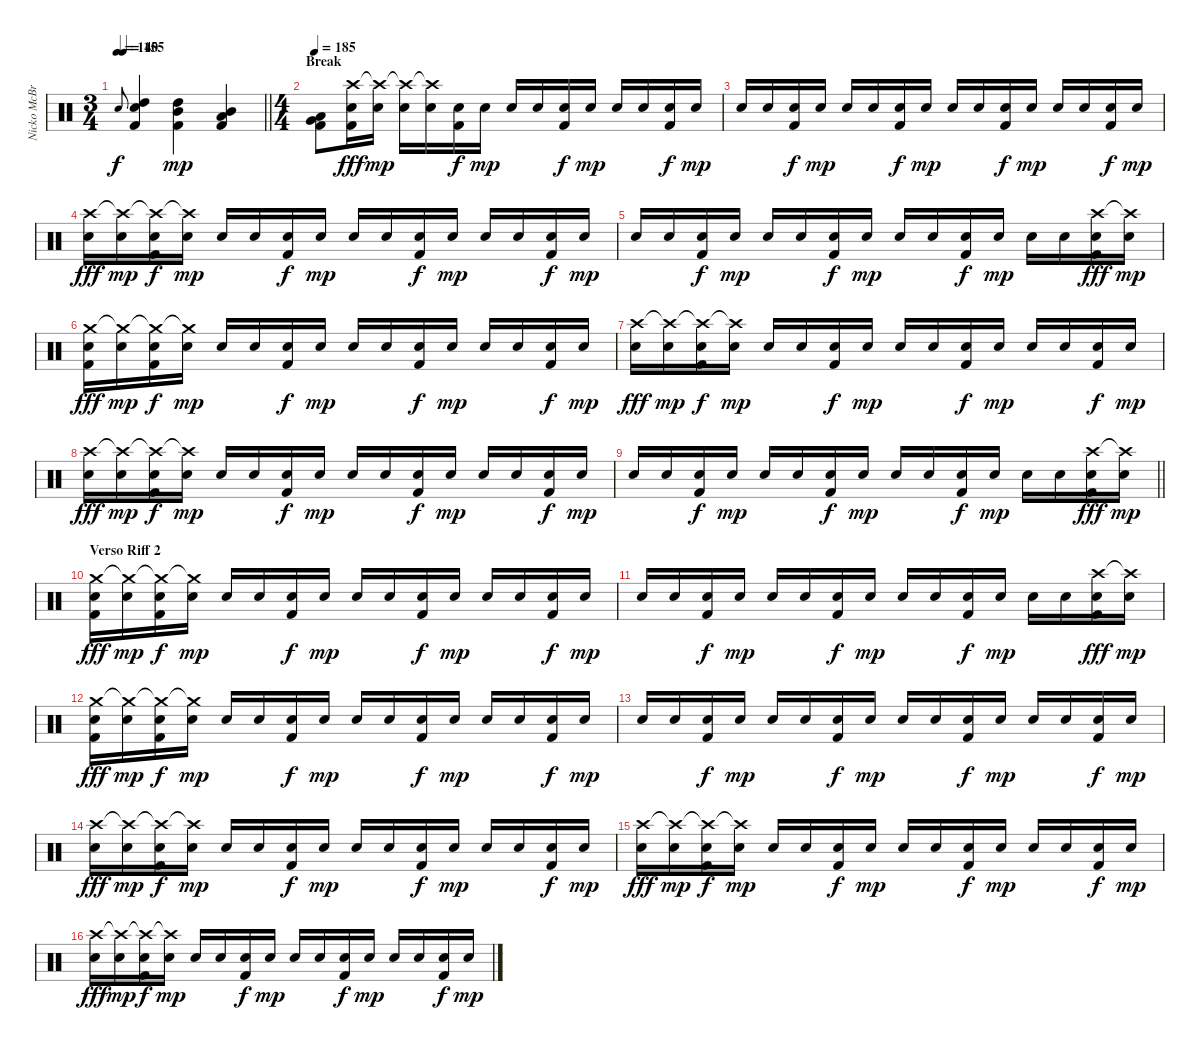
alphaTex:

\track ("Nicko McBrain" "Nicko McBr") {instrument percussion}
\staff {score}
\articulation defaults
\ts (3 4)
\tempo 140
\tempo (155 0.041666666666666664)
\clef neutral
\barLineRight lightlight
\ks c "Snare (hit) 2".8{gr onbeat dy f}
("Snare (hit) 2" "High Tom (hit)" "Kick (hit) 2").4 ("High Tom (hit)" "Mid Tom (hit)" "Kick (hit) 2").4{dy mp} ("Mid Tom (hit)" "Low Tom (hit)" "Kick (hit) 2").4 |
\ts (4 4)
\section ("" "Break")
\tempo 185
("Low Tom (hit)" "Very Low Tom (hit)" "Kick (hit) 2").8 ("Snare (hit) 2" "Crash high (hit)" "Kick (hit) 2").16{dy fff} ("Snare (hit) 2" "Crash high (hit)"{t}).16{dy mp} ("Snare (hit) 2" "Crash high (hit)"{t}).16 ("Snare (hit) 2" "Crash high (hit)"{t}).16 ("Snare (hit) 2" "Kick (hit) 2").16{dy f} "Snare (hit) 2".16{dy mp} "Snare (hit) 2".16 "Snare (hit) 2".16 ("Snare (hit) 2" "Kick (hit) 2").16{dy f} "Snare (hit) 2".16{dy mp} "Snare (hit) 2".16 "Snare (hit) 2".16 ("Snare (hit) 2" "Kick (hit) 2").16{dy f} "Snare (hit) 2".16{dy mp} |
"Snare (hit) 2".16 "Snare (hit) 2".16 ("Snare (hit) 2" "Kick (hit) 2").16{dy f} "Snare (hit) 2".16{dy mp} "Snare (hit) 2".16 "Snare (hit) 2".16 ("Snare (hit) 2" "Kick (hit) 2").16{dy f} "Snare (hit) 2".16{dy mp} "Snare (hit) 2".16 "Snare (hit) 2".16 ("Snare (hit) 2" "Kick (hit) 2").16{dy f} "Snare (hit) 2".16{dy mp} "Snare (hit) 2".16 "Snare (hit) 2".16 ("Snare (hit) 2" "Kick (hit) 2").16{dy f} "Snare (hit) 2".16{dy mp} |
("Snare (hit) 2" "Crash high (hit)").16{dy fff} ("Snare (hit) 2" "Crash high (hit)"{t}).16{dy mp} ("Snare (hit) 2" "Crash high (hit)"{t} "Kick (hit) 2").16{dy f} ("Snare (hit) 2" "Crash high (hit)"{t}).16{dy mp} "Snare (hit) 2".16 "Snare (hit) 2".16 ("Snare (hit) 2" "Kick (hit) 2").16{dy f} "Snare (hit) 2".16{dy mp} "Snare (hit) 2".16 "Snare (hit) 2".16 ("Snare (hit) 2" "Kick (hit) 2").16{dy f} "Snare (hit) 2".16{dy mp} "Snare (hit) 2".16 "Snare (hit) 2".16 ("Snare (hit) 2" "Kick (hit) 2").16{dy f} "Snare (hit) 2".16{dy mp} |
"Snare (hit) 2".16 "Snare (hit) 2".16 ("Snare (hit) 2" "Kick (hit) 2").16{dy f} "Snare (hit) 2".16{dy mp} "Snare (hit) 2".16 "Snare (hit) 2".16 ("Snare (hit) 2" "Kick (hit) 2").16{dy f} "Snare (hit) 2".16{dy mp} "Snare (hit) 2".16 "Snare (hit) 2".16 ("Snare (hit) 2" "Kick (hit) 2").16{dy f} "Snare (hit) 2".16{dy mp} "Snare (hit) 2".16 "Snare (hit) 2".16 ("Snare (hit) 2" "Crash high (hit)" "Kick (hit) 2").16{dy fff} ("Snare (hit) 2" "Crash high (hit)"{t}).16{dy mp} |
("Snare (hit) 2" "Crash medium (hit)" "Kick (hit) 2").16{dy fff} ("Snare (hit) 2" "Crash medium (hit)"{t}).16{dy mp} ("Snare (hit) 2" "Crash medium (hit)"{t} "Kick (hit) 2").16{dy f} ("Snare (hit) 2" "Crash medium (hit)"{t}).16{dy mp} "Snare (hit) 2".16 "Snare (hit) 2".16 ("Snare (hit) 2" "Kick (hit) 2").16{dy f} "Snare (hit) 2".16{dy mp} "Snare (hit) 2".16 "Snare (hit) 2".16 ("Snare (hit) 2" "Kick (hit) 2").16{dy f} "Snare (hit) 2".16{dy mp} "Snare (hit) 2".16 "Snare (hit) 2".16 ("Snare (hit) 2" "Kick (hit) 2").16{dy f} "Snare (hit) 2".16{dy mp} |
("Snare (hit) 2" "Crash high (hit)").16{dy fff} ("Snare (hit) 2" "Crash high (hit)"{t}).16{dy mp} ("Snare (hit) 2" "Crash high (hit)"{t} "Kick (hit) 2").16{dy f} ("Snare (hit) 2" "Crash high (hit)"{t}).16{dy mp} "Snare (hit) 2".16 "Snare (hit) 2".16 ("Snare (hit) 2" "Kick (hit) 2").16{dy f} "Snare (hit) 2".16{dy mp} "Snare (hit) 2".16 "Snare (hit) 2".16 ("Snare (hit) 2" "Kick (hit) 2").16{dy f} "Snare (hit) 2".16{dy mp} "Snare (hit) 2".16 "Snare (hit) 2".16 ("Snare (hit) 2" "Kick (hit) 2").16{dy f} "Snare (hit) 2".16{dy mp} |
("Snare (hit) 2" "Crash high (hit)").16{dy fff} ("Snare (hit) 2" "Crash high (hit)"{t}).16{dy mp} ("Snare (hit) 2" "Crash high (hit)"{t} "Kick (hit) 2").16{dy f} ("Snare (hit) 2" "Crash high (hit)"{t}).16{dy mp} "Snare (hit) 2".16 "Snare (hit) 2".16 ("Snare (hit) 2" "Kick (hit) 2").16{dy f} "Snare (hit) 2".16{dy mp} "Snare (hit) 2".16 "Snare (hit) 2".16 ("Snare (hit) 2" "Kick (hit) 2").16{dy f} "Snare (hit) 2".16{dy mp} "Snare (hit) 2".16 "Snare (hit) 2".16 ("Snare (hit) 2" "Kick (hit) 2").16{dy f} "Snare (hit) 2".16{dy mp} |
\barLineRight lightlight "Snare (hit) 2".16 "Snare (hit) 2".16
("Snare (hit) 2" "Kick (hit) 2").16{dy f} "Snare (hit) 2".16{dy mp} "Snare (hit) 2".16 "Snare (hit) 2".16 ("Snare (hit) 2" "Kick (hit) 2").16{dy f} "Snare (hit) 2".16{dy mp} "Snare (hit) 2".16 "Snare (hit) 2".16 ("Snare (hit) 2" "Kick (hit) 2").16{dy f} "Snare (hit) 2".16{dy mp} "Snare (hit) 2".16 "Snare (hit) 2".16 ("Snare (hit) 2" "Crash high (hit)" "Kick (hit) 2").16{dy fff} ("Snare (hit) 2" "Crash high (hit)"{t}).16{dy mp} |
\section ("" "Verso Riff 2")
("Snare (hit) 2" "Crash medium (hit)" "Kick (hit) 2").16{dy fff} ("Snare (hit) 2" "Crash medium (hit)"{t}).16{dy mp} ("Snare (hit) 2" "Crash medium (hit)"{t} "Kick (hit) 2").16{dy f} ("Snare (hit) 2" "Crash medium (hit)"{t}).16{dy mp} "Snare (hit) 2".16 "Snare (hit) 2".16 ("Snare (hit) 2" "Kick (hit) 2").16{dy f} "Snare (hit) 2".16{dy mp} "Snare (hit) 2".16 "Snare (hit) 2".16 ("Snare (hit) 2" "Kick (hit) 2").16{dy f} "Snare (hit) 2".16{dy mp} "Snare (hit) 2".16 "Snare (hit) 2".16 ("Snare (hit) 2" "Kick (hit) 2").16{dy f} "Snare (hit) 2".16{dy mp} |
"Snare (hit) 2".16 "Snare (hit) 2".16 ("Snare (hit) 2" "Kick (hit) 2").16{dy f} "Snare (hit) 2".16{dy mp} "Snare (hit) 2".16 "Snare (hit) 2".16 ("Snare (hit) 2" "Kick (hit) 2").16{dy f} "Snare (hit) 2".16{dy mp} "Snare (hit) 2".16 "Snare (hit) 2".16 ("Snare (hit) 2" "Kick (hit) 2").16{dy f} "Snare (hit) 2".16{dy mp} "Snare (hit) 2".16 "Snare (hit) 2".16 ("Snare (hit) 2" "Crash high (hit)" "Kick (hit) 2").16{dy fff} ("Snare (hit) 2" "Crash high (hit)"{t}).16{dy mp} |
("Snare (hit) 2" "Crash medium (hit)" "Kick (hit) 2").16{dy fff} ("Snare (hit) 2" "Crash medium (hit)"{t}).16{dy mp} ("Snare (hit) 2" "Crash medium (hit)"{t} "Kick (hit) 2").16{dy f} ("Snare (hit) 2" "Crash medium (hit)"{t}).16{dy mp} "Snare (hit) 2".16 "Snare (hit) 2".16 ("Snare (hit) 2" "Kick (hit) 2").16{dy f} "Snare (hit) 2".16{dy mp} "Snare (hit) 2".16 "Snare (hit) 2".16 ("Snare (hit) 2" "Kick (hit) 2").16{dy f} "Snare (hit) 2".16{dy mp} "Snare (hit) 2".16 "Snare (hit) 2".16 ("Snare (hit) 2" "Kick (hit) 2").16{dy f} "Snare (hit) 2".16{dy mp} |
"Snare (hit) 2".16 "Snare (hit) 2".16 ("Snare (hit) 2" "Kick (hit) 2").16{dy f} "Snare (hit) 2".16{dy mp} "Snare (hit) 2".16 "Snare (hit) 2".16 ("Snare (hit) 2" "Kick (hit) 2").16{dy f} "Snare (hit) 2".16{dy mp} "Snare (hit) 2".16 "Snare (hit) 2".16 ("Snare (hit) 2" "Kick (hit) 2").16{dy f} "Snare (hit) 2".16{dy mp} "Snare (hit) 2".16 "Snare (hit) 2".16 ("Snare (hit) 2" "Kick (hit) 2").16{dy f} "Snare (hit) 2".16{dy mp} |
("Snare (hit) 2" "Crash high (hit)").16{dy fff} ("Snare (hit) 2" "Crash high (hit)"{t}).16{dy mp} ("Snare (hit) 2" "Crash high (hit)"{t} "Kick (hit) 2").16{dy f} ("Snare (hit) 2" "Crash high (hit)"{t}).16{dy mp} "Snare (hit) 2".16 "Snare (hit) 2".16 ("Snare (hit) 2" "Kick (hit) 2").16{dy f} "Snare (hit) 2".16{dy mp} "Snare (hit) 2".16 "Snare (hit) 2".16 ("Snare (hit) 2" "Kick (hit) 2").16{dy f} "Snare (hit) 2".16{dy mp} "Snare (hit) 2".16 "Snare (hit) 2".16 ("Snare (hit) 2" "Kick (hit) 2").16{dy f} "Snare (hit) 2".16{dy mp} |
("Snare (hit) 2" "Crash high (hit)").16{dy fff} ("Snare (hit) 2" "Crash high (hit)"{t}).16{dy mp} ("Snare (hit) 2" "Crash high (hit)"{t} "Kick (hit) 2").16{dy f} ("Snare (hit) 2" "Crash high (hit)"{t}).16{dy mp} "Snare (hit) 2".16 "Snare (hit) 2".16 ("Snare (hit) 2" "Kick (hit) 2").16{dy f} "Snare (hit) 2".16{dy mp} "Snare (hit) 2".16 "Snare (hit) 2".16 ("Snare (hit) 2" "Kick (hit) 2").16{dy f} "Snare (hit) 2".16{dy mp} "Snare (hit) 2".16 "Snare (hit) 2".16 ("Snare (hit) 2" "Kick (hit) 2").16{dy f} "Snare (hit) 2".16{dy mp} |
("Snare (hit) 2" "Crash high (hit)").16{dy fff} ("Snare (hit) 2" "Crash high (hit)"{t}).16{dy mp} ("Snare (hit) 2" "Crash high (hit)"{t} "Kick (hit) 2").16{dy f} ("Snare (hit) 2" "Crash high (hit)"{t}).16{dy mp} "Snare (hit) 2".16 "Snare (hit) 2".16 ("Snare (hit) 2" "Kick (hit) 2").16{dy f} "Snare (hit) 2".16{dy mp} "Snare (hit) 2".16 "Snare (hit) 2".16 ("Snare (hit) 2" "Kick (hit) 2").16{dy f} "Snare (hit) 2".16{dy mp} "Snare (hit) 2".16 "Snare (hit) 2".16 ("Snare (hit) 2" "Kick (hit) 2").16{dy f} "Snare (hit) 2".16{dy mp}
